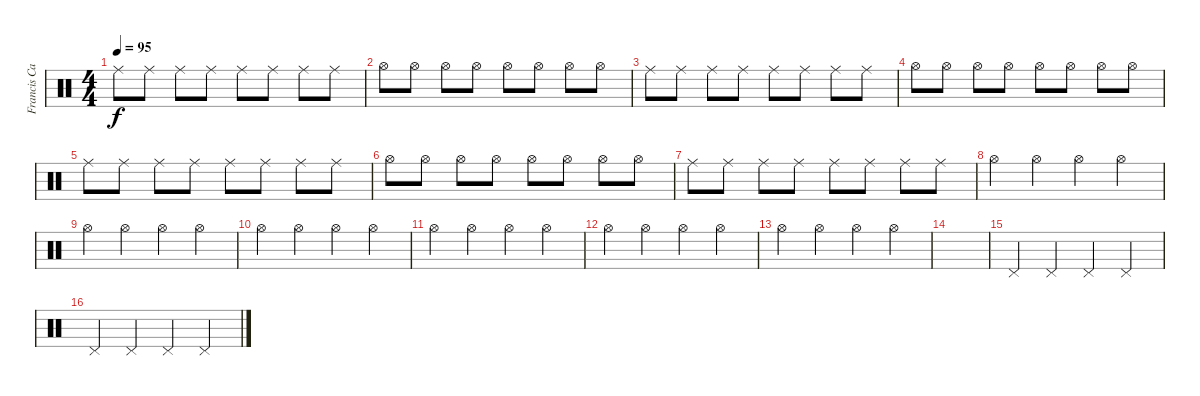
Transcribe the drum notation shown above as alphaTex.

\track ("Francis Cassol 2" "Francis Ca") {instrument percussion}
\staff {score}
\articulation defaults
\ts (4 4)
\tempo 95
\clef neutral
\ks c "Ride (middle)".8{dy f} "Ride (middle)".8 "Ride (middle)".8 "Ride (middle)".8 "Ride (middle)".8 "Ride (middle)".8 "Ride (middle)".8 "Ride (middle)".8
|
"Hi-Hat (open)".8 "Hi-Hat (open)".8 "Hi-Hat (open)".8 "Hi-Hat (open)".8 "Hi-Hat (open)".8 "Hi-Hat (open)".8 "Hi-Hat (open)".8 "Hi-Hat (open)".8 |
"Ride (middle)".8 "Ride (middle)".8 "Ride (middle)".8 "Ride (middle)".8 "Ride (middle)".8 "Ride (middle)".8 "Ride (middle)".8 "Ride (middle)".8 |
"Hi-Hat (open)".8 "Hi-Hat (open)".8 "Hi-Hat (open)".8 "Hi-Hat (open)".8 "Hi-Hat (open)".8 "Hi-Hat (open)".8 "Hi-Hat (open)".8 "Hi-Hat (open)".8 |
"Ride (middle)".8 "Ride (middle)".8 "Ride (middle)".8 "Ride (middle)".8 "Ride (middle)".8 "Ride (middle)".8 "Ride (middle)".8 "Ride (middle)".8 |
"Hi-Hat (open)".8 "Hi-Hat (open)".8 "Hi-Hat (open)".8 "Hi-Hat (open)".8 "Hi-Hat (open)".8 "Hi-Hat (open)".8 "Hi-Hat (open)".8 "Hi-Hat (open)".8 |
"Ride (middle)".8 "Ride (middle)".8 "Ride (middle)".8 "Ride (middle)".8 "Ride (middle)".8 "Ride (middle)".8 "Ride (middle)".8 "Ride (middle)".8 |
"Hi-Hat (open)".4 "Hi-Hat (open)".4 "Hi-Hat (open)".4 "Hi-Hat (open)".4 |
"Hi-Hat (open)".4 "Hi-Hat (open)".4 "Hi-Hat (open)".4 "Hi-Hat (open)".4 |
"Hi-Hat (open)".4 "Hi-Hat (open)".4 "Hi-Hat (open)".4 "Hi-Hat (open)".4 |
"Hi-Hat (open)".4 "Hi-Hat (open)".4 "Hi-Hat (open)".4 "Hi-Hat (open)".4 |
"Hi-Hat (open)".4 "Hi-Hat (open)".4 "Hi-Hat (open)".4 "Hi-Hat (open)".4 |
"Hi-Hat (open)".4 "Hi-Hat (open)".4 "Hi-Hat (open)".4 "Hi-Hat (open)".4 |
|
"Pedal Hi-Hat (hit)".4 "Pedal Hi-Hat (hit)".4 "Pedal Hi-Hat (hit)".4 "Pedal Hi-Hat (hit)".4 |
"Pedal Hi-Hat (hit)".4 "Pedal Hi-Hat (hit)".4 "Pedal Hi-Hat (hit)".4 "Pedal Hi-Hat (hit)".4
